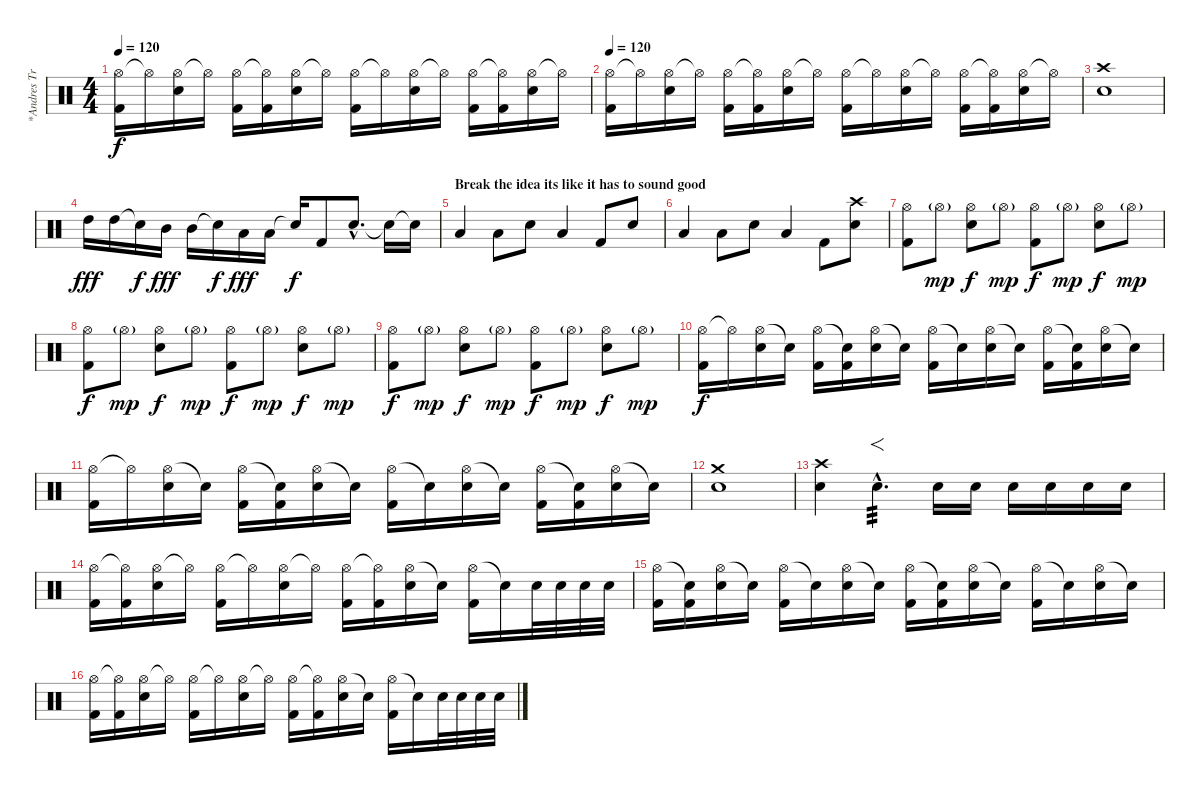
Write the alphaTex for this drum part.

\track ("*Andres Trujillo" "*Andres Tr") {instrument percussion}
\staff {score}
\articulation defaults
\ts (4 4)
\tempo 120
\clef neutral
\ks c
("Hi-Hat (open)" "Kick (hit) 2").16{dy f} "Hi-Hat (open)"{t}.16 ("Hi-Hat (open)" "Electric Snare (hit)").16 "Hi-Hat (open)"{t}.16 ("Hi-Hat (open)" "Kick (hit) 2").16 ("Hi-Hat (open)"{t} "Kick (hit) 2").16 ("Hi-Hat (open)" "Electric Snare (hit)").16 "Hi-Hat (open)"{t}.16 ("Hi-Hat (open)" "Kick (hit) 2").16 "Hi-Hat (open)"{t}.16 ("Hi-Hat (open)" "Electric Snare (hit)").16 "Hi-Hat (open)"{t}.16 ("Hi-Hat (open)" "Kick (hit) 2").16 ("Hi-Hat (open)"{t} "Kick (hit) 2").16 ("Hi-Hat (open)" "Electric Snare (hit)").16 "Hi-Hat (open)"{t}.16 |
\tempo 120
("Hi-Hat (open)" "Kick (hit) 2").16 "Hi-Hat (open)"{t}.16 ("Hi-Hat (open)" "Electric Snare (hit)").16 "Hi-Hat (open)"{t}.16 ("Hi-Hat (open)" "Kick (hit) 2").16 ("Hi-Hat (open)"{t} "Kick (hit) 2").16 ("Hi-Hat (open)" "Electric Snare (hit)").16 "Hi-Hat (open)"{t}.16 ("Hi-Hat (open)" "Kick (hit) 2").16 "Hi-Hat (open)"{t}.16 ("Hi-Hat (open)" "Electric Snare (hit)").16 "Hi-Hat (open)"{t}.16 ("Hi-Hat (open)" "Kick (hit) 2").16 ("Hi-Hat (open)"{t} "Kick (hit) 2").16 ("Hi-Hat (open)" "Electric Snare (hit)").16 "Hi-Hat (open)"{t}.16 |
("Crash high (hit)" "Electric Snare (hit)").1 |
"High Tom (hit)".16{dy fff} "High Tom (hit)".16 "Snare (hit)"{t}.16{dy f} "Mid Tom (hit)".16{dy fff} "Mid Tom (hit)".16 "Snare (hit)"{t}.16{dy f} "Low Tom (hit)".16{dy fff} "Low Tom (hit)".16 "Snare (hit)"{t}.16{dy f} "Kick (hit) 2".8 "Electric Snare (hit)"{hac}.8{d} "Snare (hit)"{t}.16 "Snare (hit)"{t}.16 |
\section ("" "Break the idea its like it has to sound good ")
"Low Tom (hit)".4 "Low Tom (hit)".8 "Electric Snare (hit)".8 "Low Tom (hit)".4 "Kick (hit) 2".8 "Electric Snare (hit)".8 |
"Low Tom (hit)".4 "Low Tom (hit)".8 "Electric Snare (hit)".8 "Low Tom (hit)".4 "Kick (hit) 2".8 ("Crash high (hit)" "Electric Snare (hit)").8 |
("Hi-Hat (open)" "Kick (hit) 2").8 "Hi-Hat (open)"{g}.8{dy mp} ("Hi-Hat (open)" "Electric Snare (hit)").8{dy f} "Hi-Hat (open)"{g}.8{dy mp} ("Hi-Hat (open)" "Kick (hit) 2").8{dy f} "Hi-Hat (open)"{g}.8{dy mp} ("Hi-Hat (open)" "Electric Snare (hit)").8{dy f} "Hi-Hat (open)"{g}.8{dy mp} |
("Hi-Hat (open)" "Kick (hit) 2").8{dy f} "Hi-Hat (open)"{g}.8{dy mp} ("Hi-Hat (open)" "Electric Snare (hit)").8{dy f} "Hi-Hat (open)"{g}.8{dy mp} ("Hi-Hat (open)" "Kick (hit) 2").8{dy f} "Hi-Hat (open)"{g}.8{dy mp} ("Hi-Hat (open)" "Electric Snare (hit)").8{dy f} "Hi-Hat (open)"{g}.8{dy mp} |
("Hi-Hat (open)" "Kick (hit) 2").8{dy f} "Hi-Hat (open)"{g}.8{dy mp} ("Hi-Hat (open)" "Electric Snare (hit)").8{dy f} "Hi-Hat (open)"{g}.8{dy mp} ("Hi-Hat (open)" "Kick (hit) 2").8{dy f} "Hi-Hat (open)"{g}.8{dy mp} ("Hi-Hat (open)" "Electric Snare (hit)").8{dy f} "Hi-Hat (open)"{g}.8{dy mp} |
("Hi-Hat (open)" "Kick (hit) 2").16{dy f volume 0} "Hi-Hat (open)"{t}.16{volume 16} ("Hi-Hat (open)" "Electric Snare (hit)").16 "Snare (hit)"{t}.16 ("Hi-Hat (open)" "Kick (hit) 2").16 ("Snare (hit)"{t} "Kick (hit) 2").16 ("Hi-Hat (open)" "Electric Snare (hit)").16 "Snare (hit)"{t}.16 ("Hi-Hat (open)" "Kick (hit) 2").16 "Snare (hit)"{t}.16 ("Hi-Hat (open)" "Electric Snare (hit)").16 "Snare (hit)"{t}.16 ("Hi-Hat (open)" "Kick (hit) 2").16 ("Snare (hit)"{t} "Kick (hit) 2").16 ("Hi-Hat (open)" "Electric Snare (hit)").16 "Snare (hit)"{t}.16 |
("Hi-Hat (open)" "Kick (hit) 2").16 "Hi-Hat (open)"{t}.16 ("Hi-Hat (open)" "Electric Snare (hit)").16 "Snare (hit)"{t}.16 ("Hi-Hat (open)" "Kick (hit) 2").16 ("Snare (hit)"{t} "Kick (hit) 2").16 ("Hi-Hat (open)" "Electric Snare (hit)").16 "Snare (hit)"{t}.16 ("Hi-Hat (open)" "Kick (hit) 2").16 "Snare (hit)"{t}.16 ("Hi-Hat (open)" "Electric Snare (hit)").16 "Snare (hit)"{t}.16 ("Hi-Hat (open)" "Kick (hit) 2").16 ("Snare (hit)"{t} "Kick (hit) 2").16 ("Hi-Hat (open)" "Electric Snare (hit)").16 "Snare (hit)"{t}.16 |
("Crash medium (hit)" "Electric Snare (hit)").1 |
("Crash high (hit)" "Electric Snare (hit)").4 "Electric Snare (hit)"{hac}.4{f d tp 3} "Electric Snare (hit)".16 "Electric Snare (hit)".16 "Electric Snare (hit)".16 "Electric Snare (hit)".16 "Electric Snare (hit)".16 "Electric Snare (hit)".16 |
("Hi-Hat (open)" "Kick (hit) 2").16 ("Hi-Hat (open)"{t} "Kick (hit) 2").16 ("Hi-Hat (open)" "Electric Snare (hit)").16 "Hi-Hat (open)"{t}.16 ("Hi-Hat (open)" "Kick (hit) 2").16 "Hi-Hat (open)"{t}.16 ("Hi-Hat (open)" "Electric Snare (hit)").16 "Hi-Hat (open)"{t}.16 ("Hi-Hat (open)" "Kick (hit) 2").16 ("Hi-Hat (open)"{t} "Kick (hit) 2").16 ("Hi-Hat (open)" "Electric Snare (hit)").16 "Snare (hit)"{t}.16 ("Hi-Hat (open)" "Kick (hit) 2").16 "Snare (hit)"{t}.16 "Electric Snare (hit)".32 "Electric Snare (hit)".32 "Electric Snare (hit)".32 "Electric Snare (hit)".32 |
("Hi-Hat (open)" "Kick (hit) 2").16 ("Snare (hit)"{t} "Kick (hit) 2").16 ("Hi-Hat (open)" "Electric Snare (hit)").16 "Snare (hit)"{t}.16 ("Hi-Hat (open)" "Kick (hit) 2").16 "Snare (hit)"{t}.16 ("Hi-Hat (open)" "Electric Snare (hit)").16 "Snare (hit)"{t}.16 ("Hi-Hat (open)" "Kick (hit) 2").16 ("Snare (hit)"{t} "Kick (hit) 2").16 ("Hi-Hat (open)" "Electric Snare (hit)").16 "Snare (hit)"{t}.16 ("Hi-Hat (open)" "Kick (hit) 2").16 "Snare (hit)"{t}.16 ("Hi-Hat (open)" "Electric Snare (hit)").16 "Snare (hit)"{t}.16 |
("Hi-Hat (open)" "Kick (hit) 2").16 ("Hi-Hat (open)"{t} "Kick (hit) 2").16 ("Hi-Hat (open)" "Electric Snare (hit)").16 "Hi-Hat (open)"{t}.16 ("Hi-Hat (open)" "Kick (hit) 2").16 "Hi-Hat (open)"{t}.16 ("Hi-Hat (open)" "Electric Snare (hit)").16 "Hi-Hat (open)"{t}.16 ("Hi-Hat (open)" "Kick (hit) 2").16 ("Hi-Hat (open)"{t} "Kick (hit) 2").16 ("Hi-Hat (open)" "Electric Snare (hit)").16 "Snare (hit)"{t}.16 ("Hi-Hat (open)" "Kick (hit) 2").16 "Snare (hit)"{t}.16 "Electric Snare (hit)".32 "Electric Snare (hit)".32 "Electric Snare (hit)".32 "Electric Snare (hit)".32
